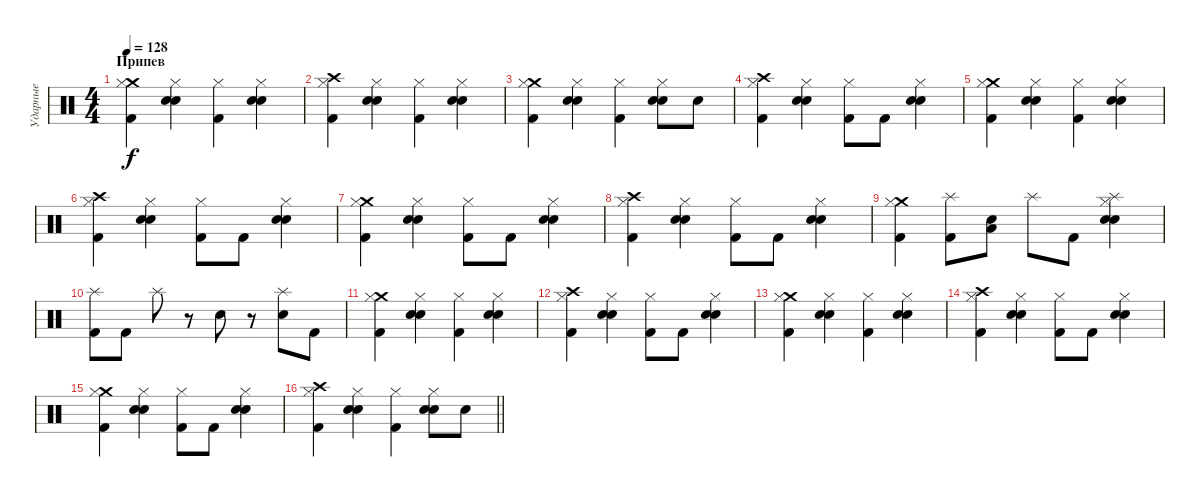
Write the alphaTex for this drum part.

\track ("Ударные" "Ударные") {instrument percussion}
\staff {score}
\articulation defaults
\ts (4 4)
\section ("" "Припев")
\tempo 128
\clef neutral
\ks c
("Crash medium (hit)" "Hi-Hat (closed)" "Kick (hit) 2").4{dy f} ("Electric Snare (hit)" "Snare (hit) 2" "Hi-Hat (closed)").4 ("Hi-Hat (closed)" "Kick (hit) 2").4 ("Electric Snare (hit)" "Snare (hit) 2" "Hi-Hat (closed)").4 |
("Crash high (hit)" "Hi-Hat (closed)" "Kick (hit) 2").4 ("Electric Snare (hit)" "Snare (hit) 2" "Hi-Hat (closed)").4 ("Hi-Hat (closed)" "Kick (hit) 2").4 ("Electric Snare (hit)" "Snare (hit) 2" "Hi-Hat (closed)").4 |
("Crash medium (hit)" "Hi-Hat (closed)" "Kick (hit) 2").4 ("Electric Snare (hit)" "Snare (hit) 2" "Hi-Hat (closed)").4 ("Hi-Hat (closed)" "Kick (hit) 2").4 ("Electric Snare (hit)" "Snare (hit) 2" "Hi-Hat (closed)").8 "Electric Snare (hit)".8 |
("Crash high (hit)" "Hi-Hat (closed)" "Kick (hit) 2").4 ("Electric Snare (hit)" "Snare (hit) 2" "Hi-Hat (closed)").4 ("Hi-Hat (closed)" "Kick (hit) 2").8 "Kick (hit) 2".8 ("Electric Snare (hit)" "Snare (hit) 2" "Hi-Hat (closed)").4 |
("Crash medium (hit)" "Hi-Hat (closed)" "Kick (hit) 2").4 ("Electric Snare (hit)" "Snare (hit) 2" "Hi-Hat (closed)").4 ("Hi-Hat (closed)" "Kick (hit) 2").4 ("Electric Snare (hit)" "Snare (hit) 2" "Hi-Hat (closed)").4 |
("Crash high (hit)" "Hi-Hat (closed)" "Kick (hit) 2").4 ("Electric Snare (hit)" "Snare (hit) 2" "Hi-Hat (closed)").4 ("Hi-Hat (closed)" "Kick (hit) 2").8 "Kick (hit) 2".8 ("Electric Snare (hit)" "Snare (hit) 2" "Hi-Hat (closed)").4 |
("Crash medium (hit)" "Hi-Hat (closed)" "Kick (hit) 2").4 ("Electric Snare (hit)" "Snare (hit) 2" "Hi-Hat (closed)").4 ("Hi-Hat (closed)" "Kick (hit) 2").8 "Kick (hit) 2".8 ("Electric Snare (hit)" "Snare (hit) 2" "Hi-Hat (closed)").4 |
("Crash high (hit)" "Hi-Hat (closed)" "Kick (hit) 2").4 ("Electric Snare (hit)" "Snare (hit) 2" "Hi-Hat (closed)").4 ("Hi-Hat (closed)" "Kick (hit) 2").8 "Kick (hit) 2".8 ("Electric Snare (hit)" "Snare (hit) 2" "Hi-Hat (closed)").4 |
("Crash medium (hit)" "Hi-Hat (closed)" "Kick (hit) 2").4 ("Splash (hit)" "Kick (hit) 2").8 ("Snare (hit) 2" "Low Tom (hit)").8 "Splash (hit)".8 "Kick (hit) 2".8 ("Splash (hit)" "Electric Snare (hit)" "Snare (hit) 2" "Hi-Hat (closed)").4 |
("Splash (hit)" "Kick (hit) 2").8 "Kick (hit) 2".8 "Splash (hit)".8 r.8 "Electric Snare (hit)".8 r.8 ("Splash (hit)" "Electric Snare (hit)").8 "Kick (hit) 2".8 |
("Crash medium (hit)" "Hi-Hat (closed)" "Kick (hit) 2").4 ("Electric Snare (hit)" "Snare (hit) 2" "Hi-Hat (closed)").4 ("Hi-Hat (closed)" "Kick (hit) 2").4 ("Electric Snare (hit)" "Snare (hit) 2" "Hi-Hat (closed)").4 |
("Crash high (hit)" "Hi-Hat (closed)" "Kick (hit) 2").4 ("Electric Snare (hit)" "Snare (hit) 2" "Hi-Hat (closed)").4 ("Hi-Hat (closed)" "Kick (hit) 2").8 "Kick (hit) 2".8 ("Electric Snare (hit)" "Snare (hit) 2" "Hi-Hat (closed)").4 |
("Crash medium (hit)" "Hi-Hat (closed)" "Kick (hit) 2").4 ("Electric Snare (hit)" "Snare (hit) 2" "Hi-Hat (closed)").4 ("Hi-Hat (closed)" "Kick (hit) 2").4 ("Electric Snare (hit)" "Snare (hit) 2" "Hi-Hat (closed)").4 |
("Crash high (hit)" "Hi-Hat (closed)" "Kick (hit) 2").4 ("Electric Snare (hit)" "Snare (hit) 2" "Hi-Hat (closed)").4 ("Hi-Hat (closed)" "Kick (hit) 2").8 "Kick (hit) 2".8 ("Electric Snare (hit)" "Snare (hit) 2" "Hi-Hat (closed)").4 |
("Crash medium (hit)" "Hi-Hat (closed)" "Kick (hit) 2").4 ("Electric Snare (hit)" "Snare (hit) 2" "Hi-Hat (closed)").4 ("Hi-Hat (closed)" "Kick (hit) 2").8 "Kick (hit) 2".8 ("Electric Snare (hit)" "Snare (hit) 2" "Hi-Hat (closed)").4 |
\barLineRight lightlight
("Crash high (hit)" "Hi-Hat (closed)" "Kick (hit) 2").4 ("Electric Snare (hit)" "Snare (hit) 2" "Hi-Hat (closed)").4 ("Hi-Hat (closed)" "Kick (hit) 2").4 ("Electric Snare (hit)" "Snare (hit) 2" "Hi-Hat (closed)").8 "Electric Snare (hit)".8
